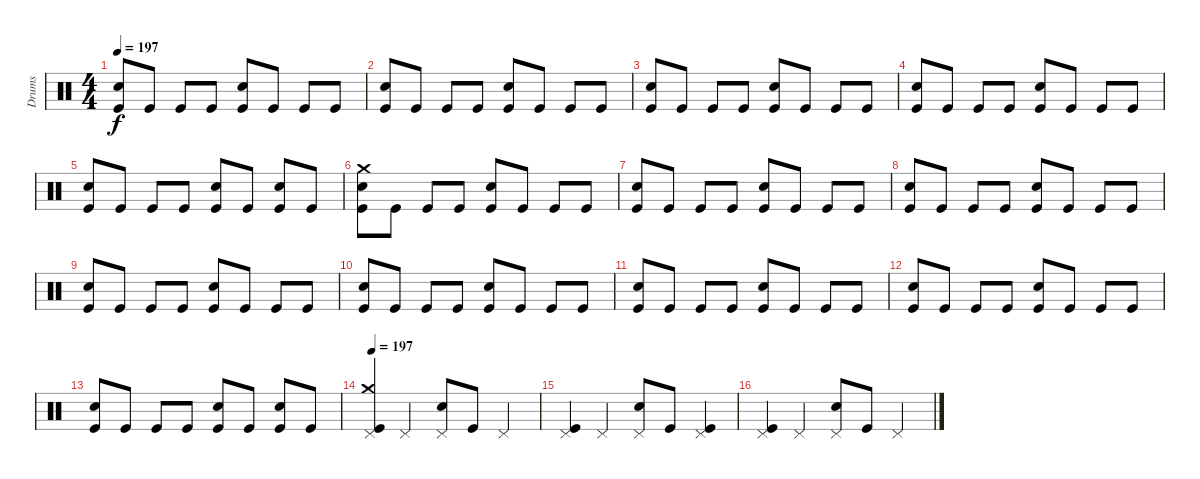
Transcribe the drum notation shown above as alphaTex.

\track ("Drums" "Drums") {instrument percussion}
\staff {score}
\articulation defaults
\ts (4 4)
\tempo 197
\clef neutral
\ks c
("Snare (hit) 2" "Kick (hit)").8{dy f} "Kick (hit)".8 "Kick (hit)".8 "Kick (hit)".8 ("Snare (hit) 2" "Kick (hit)").8 "Kick (hit)".8 "Kick (hit)".8 "Kick (hit)".8 |
("Snare (hit) 2" "Kick (hit)").8 "Kick (hit)".8 "Kick (hit)".8 "Kick (hit)".8 ("Snare (hit) 2" "Kick (hit)").8 "Kick (hit)".8 "Kick (hit)".8 "Kick (hit)".8 |
("Snare (hit) 2" "Kick (hit)").8 "Kick (hit)".8 "Kick (hit)".8 "Kick (hit)".8 ("Snare (hit) 2" "Kick (hit)").8 "Kick (hit)".8 "Kick (hit)".8 "Kick (hit)".8 |
("Snare (hit) 2" "Kick (hit)").8 "Kick (hit)".8 "Kick (hit)".8 "Kick (hit)".8 ("Snare (hit) 2" "Kick (hit)").8 "Kick (hit)".8 "Kick (hit)".8 "Kick (hit)".8 |
("Snare (hit) 2" "Kick (hit)").8 "Kick (hit)".8 "Kick (hit)".8 "Kick (hit)".8 ("Snare (hit) 2" "Kick (hit)").8 "Kick (hit)".8 ("Snare (hit) 2" "Kick (hit)").8 "Kick (hit)".8 |
("Crash medium (hit)" "Snare (hit) 2" "Kick (hit)").8 "Kick (hit)".8 "Kick (hit)".8 "Kick (hit)".8 ("Snare (hit) 2" "Kick (hit)").8 "Kick (hit)".8 "Kick (hit)".8 "Kick (hit)".8 |
("Snare (hit) 2" "Kick (hit)").8 "Kick (hit)".8 "Kick (hit)".8 "Kick (hit)".8 ("Snare (hit) 2" "Kick (hit)").8 "Kick (hit)".8 "Kick (hit)".8 "Kick (hit)".8 |
("Snare (hit) 2" "Kick (hit)").8 "Kick (hit)".8 "Kick (hit)".8 "Kick (hit)".8 ("Snare (hit) 2" "Kick (hit)").8 "Kick (hit)".8 "Kick (hit)".8 "Kick (hit)".8 |
("Snare (hit) 2" "Kick (hit)").8 "Kick (hit)".8 "Kick (hit)".8 "Kick (hit)".8 ("Snare (hit) 2" "Kick (hit)").8 "Kick (hit)".8 "Kick (hit)".8 "Kick (hit)".8 |
("Snare (hit) 2" "Kick (hit)").8 "Kick (hit)".8 "Kick (hit)".8 "Kick (hit)".8 ("Snare (hit) 2" "Kick (hit)").8 "Kick (hit)".8 "Kick (hit)".8 "Kick (hit)".8 |
("Snare (hit) 2" "Kick (hit)").8 "Kick (hit)".8 "Kick (hit)".8 "Kick (hit)".8 ("Snare (hit) 2" "Kick (hit)").8 "Kick (hit)".8 "Kick (hit)".8 "Kick (hit)".8 |
("Snare (hit) 2" "Kick (hit)").8 "Kick (hit)".8 "Kick (hit)".8 "Kick (hit)".8 ("Snare (hit) 2" "Kick (hit)").8 "Kick (hit)".8 "Kick (hit)".8 "Kick (hit)".8 |
("Snare (hit) 2" "Kick (hit)").8 "Kick (hit)".8 "Kick (hit)".8 "Kick (hit)".8 ("Snare (hit) 2" "Kick (hit)").8 "Kick (hit)".8 ("Snare (hit) 2" "Kick (hit)").8 "Kick (hit)".8 |
\tempo 197
("Crash medium (hit)" "Pedal Hi-Hat (hit)" "Kick (hit)").4{volume 16} "Pedal Hi-Hat (hit)".4 ("Pedal Hi-Hat (hit)" "Snare (hit) 2").8 "Kick (hit)".8 "Pedal Hi-Hat (hit)".4 |
("Pedal Hi-Hat (hit)" "Kick (hit)").4 "Pedal Hi-Hat (hit)".4 ("Pedal Hi-Hat (hit)" "Snare (hit) 2").8 "Kick (hit)".8 ("Pedal Hi-Hat (hit)" "Kick (hit)").4 |
("Pedal Hi-Hat (hit)" "Kick (hit)").4 "Pedal Hi-Hat (hit)".4 ("Pedal Hi-Hat (hit)" "Snare (hit) 2").8 "Kick (hit)".8 "Pedal Hi-Hat (hit)".4
